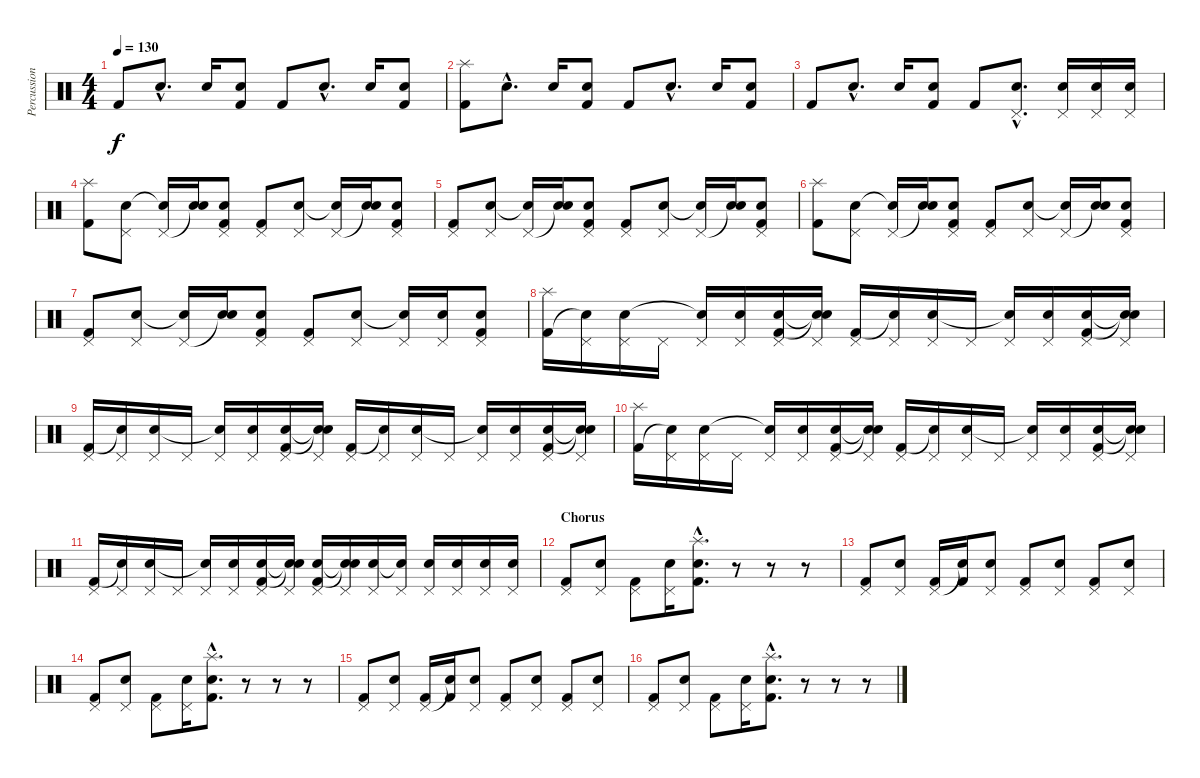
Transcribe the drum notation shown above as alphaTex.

\track ("Percussion" "Percussion") {instrument percussion}
\staff {score}
\articulation defaults
\ts (4 4)
\tempo 130
\clef neutral
\ks c "Kick (hit) 2".8{dy f} "Electric Snare (hit)"{hac}.8{d} "Electric Snare (hit)".16
("Electric Snare (hit)" "Kick (hit) 2").8 "Kick (hit) 2".8 "Electric Snare (hit)"{hac}.8{d} "Electric Snare (hit)".16 ("Electric Snare (hit)" "Kick (hit) 2").8 |
("Splash (hit)" "Kick (hit) 2").8 "Electric Snare (hit)"{hac}.8{d} "Electric Snare (hit)".16 ("Electric Snare (hit)" "Kick (hit) 2").8 "Kick (hit) 2".8 "Electric Snare (hit)"{hac}.8{d} "Electric Snare (hit)".16 ("Electric Snare (hit)" "Kick (hit) 2").8 |
"Kick (hit) 2".8 "Electric Snare (hit)"{hac}.8{d} "Electric Snare (hit)".16 ("Electric Snare (hit)" "Kick (hit) 2").8 "Kick (hit) 2".8 ("Pedal Hi-Hat (hit)"{hac} "Electric Snare (hit)"{hac}).8{d} ("Pedal Hi-Hat (hit)" "Electric Snare (hit)").16 ("Pedal Hi-Hat (hit)" "Electric Snare (hit)").16 ("Pedal Hi-Hat (hit)" "Electric Snare (hit)").16 |
("Splash (hit)" "Kick (hit) 2").8 ("Pedal Hi-Hat (hit)" "Electric Snare (hit)").8 ("Pedal Hi-Hat (hit)" "Snare (hit)"{t}).16 ("Snare (hit)"{t} "Electric Snare (hit)").16 ("Pedal Hi-Hat (hit)" "Electric Snare (hit)" "Kick (hit) 2").8 ("Pedal Hi-Hat (hit)" "Kick (hit) 2").8 ("Pedal Hi-Hat (hit)" "Electric Snare (hit)").8 ("Pedal Hi-Hat (hit)" "Snare (hit)"{t}).16 ("Snare (hit)"{t} "Electric Snare (hit)").16 ("Pedal Hi-Hat (hit)" "Electric Snare (hit)" "Kick (hit) 2").8 |
("Pedal Hi-Hat (hit)" "Kick (hit) 2").8 ("Pedal Hi-Hat (hit)" "Electric Snare (hit)").8 ("Pedal Hi-Hat (hit)" "Snare (hit)"{t}).16 ("Snare (hit)"{t} "Electric Snare (hit)").16 ("Pedal Hi-Hat (hit)" "Electric Snare (hit)" "Kick (hit) 2").8 ("Pedal Hi-Hat (hit)" "Kick (hit) 2").8 ("Pedal Hi-Hat (hit)" "Electric Snare (hit)").8 ("Pedal Hi-Hat (hit)" "Snare (hit)"{t}).16 ("Snare (hit)"{t} "Electric Snare (hit)").16 ("Pedal Hi-Hat (hit)" "Electric Snare (hit)" "Kick (hit) 2").8 |
("Splash (hit)" "Kick (hit) 2").8 ("Pedal Hi-Hat (hit)" "Electric Snare (hit)").8 ("Pedal Hi-Hat (hit)" "Snare (hit)"{t}).16 ("Snare (hit)"{t} "Electric Snare (hit)").16 ("Pedal Hi-Hat (hit)" "Electric Snare (hit)" "Kick (hit) 2").8 ("Pedal Hi-Hat (hit)" "Kick (hit) 2").8 ("Pedal Hi-Hat (hit)" "Electric Snare (hit)").8 ("Pedal Hi-Hat (hit)" "Snare (hit)"{t}).16 ("Snare (hit)"{t} "Electric Snare (hit)").16 ("Pedal Hi-Hat (hit)" "Electric Snare (hit)" "Kick (hit) 2").8 |
("Pedal Hi-Hat (hit)" "Kick (hit) 2").8 ("Pedal Hi-Hat (hit)" "Electric Snare (hit)").8 ("Pedal Hi-Hat (hit)" "Snare (hit)"{t}).16 ("Snare (hit)"{t} "Electric Snare (hit)").16 ("Pedal Hi-Hat (hit)" "Electric Snare (hit)" "Kick (hit) 2").8 ("Pedal Hi-Hat (hit)" "Kick (hit) 2").8 ("Pedal Hi-Hat (hit)" "Electric Snare (hit)").8 ("Pedal Hi-Hat (hit)" "Snare (hit)"{t}).16 ("Pedal Hi-Hat (hit)" "Electric Snare (hit)").16 ("Pedal Hi-Hat (hit)" "Electric Snare (hit)" "Kick (hit) 2").8 |
("Splash (hit)" "Kick (hit) 2").16 ("Pedal Hi-Hat (hit)" "Snare (hit)"{t}).16 ("Pedal Hi-Hat (hit)" "Electric Snare (hit)").16 "Pedal Hi-Hat (hit)".16 ("Pedal Hi-Hat (hit)" "Snare (hit)"{t}).16 ("Pedal Hi-Hat (hit)" "Electric Snare (hit)").16 ("Pedal Hi-Hat (hit)" "Electric Snare (hit)" "Kick (hit) 2").16 ("Pedal Hi-Hat (hit)" "Snare (hit)"{t} "Snare (hit)"{t}).16 ("Pedal Hi-Hat (hit)" "Kick (hit) 2").16 ("Pedal Hi-Hat (hit)" "Snare (hit)"{t}).16 ("Pedal Hi-Hat (hit)" "Electric Snare (hit)").16 "Pedal Hi-Hat (hit)".16 ("Pedal Hi-Hat (hit)" "Snare (hit)"{t}).16 ("Pedal Hi-Hat (hit)" "Electric Snare (hit)").16 ("Pedal Hi-Hat (hit)" "Electric Snare (hit)" "Kick (hit) 2").16 ("Pedal Hi-Hat (hit)" "Snare (hit)"{t} "Snare (hit)"{t}).16 |
("Pedal Hi-Hat (hit)" "Kick (hit) 2").16 ("Pedal Hi-Hat (hit)" "Snare (hit)"{t}).16 ("Pedal Hi-Hat (hit)" "Electric Snare (hit)").16 "Pedal Hi-Hat (hit)".16 ("Pedal Hi-Hat (hit)" "Snare (hit)"{t}).16 ("Pedal Hi-Hat (hit)" "Electric Snare (hit)").16 ("Pedal Hi-Hat (hit)" "Electric Snare (hit)" "Kick (hit) 2").16 ("Pedal Hi-Hat (hit)" "Snare (hit)"{t} "Snare (hit)"{t}).16 ("Pedal Hi-Hat (hit)" "Kick (hit) 2").16 ("Pedal Hi-Hat (hit)" "Snare (hit)"{t}).16 ("Pedal Hi-Hat (hit)" "Electric Snare (hit)").16 "Pedal Hi-Hat (hit)".16 ("Pedal Hi-Hat (hit)" "Snare (hit)"{t}).16 ("Pedal Hi-Hat (hit)" "Electric Snare (hit)").16 ("Pedal Hi-Hat (hit)" "Electric Snare (hit)" "Kick (hit) 2").16 ("Pedal Hi-Hat (hit)" "Snare (hit)"{t} "Snare (hit)"{t}).16 |
("Splash (hit)" "Kick (hit) 2").16 ("Pedal Hi-Hat (hit)" "Snare (hit)"{t}).16 ("Pedal Hi-Hat (hit)" "Electric Snare (hit)").16 "Pedal Hi-Hat (hit)".16 ("Pedal Hi-Hat (hit)" "Snare (hit)"{t}).16 ("Pedal Hi-Hat (hit)" "Electric Snare (hit)").16 ("Pedal Hi-Hat (hit)" "Electric Snare (hit)" "Kick (hit) 2").16 ("Pedal Hi-Hat (hit)" "Snare (hit)"{t} "Snare (hit)"{t}).16 ("Pedal Hi-Hat (hit)" "Kick (hit) 2").16 ("Pedal Hi-Hat (hit)" "Snare (hit)"{t}).16 ("Pedal Hi-Hat (hit)" "Electric Snare (hit)").16 "Pedal Hi-Hat (hit)".16 ("Pedal Hi-Hat (hit)" "Snare (hit)"{t}).16 ("Pedal Hi-Hat (hit)" "Electric Snare (hit)").16 ("Pedal Hi-Hat (hit)" "Electric Snare (hit)" "Kick (hit) 2").16 ("Pedal Hi-Hat (hit)" "Snare (hit)"{t} "Snare (hit)"{t}).16 |
("Pedal Hi-Hat (hit)" "Kick (hit) 2").16 ("Pedal Hi-Hat (hit)" "Snare (hit)"{t}).16 ("Pedal Hi-Hat (hit)" "Electric Snare (hit)").16 "Pedal Hi-Hat (hit)".16 ("Pedal Hi-Hat (hit)" "Snare (hit)"{t}).16 ("Pedal Hi-Hat (hit)" "Electric Snare (hit)").16 ("Pedal Hi-Hat (hit)" "Electric Snare (hit)" "Kick (hit) 2").16 ("Pedal Hi-Hat (hit)" "Snare (hit)"{t} "Snare (hit)"{t}).16 ("Pedal Hi-Hat (hit)" "Electric Snare (hit)" "Kick (hit) 2").16 ("Pedal Hi-Hat (hit)" "Snare (hit)"{t} "Snare (hit)"{t}).16 ("Pedal Hi-Hat (hit)" "Electric Snare (hit)").16 ("Pedal Hi-Hat (hit)" "Snare (hit)"{t}).16 ("Pedal Hi-Hat (hit)" "Electric Snare (hit)").16 ("Pedal Hi-Hat (hit)" "Electric Snare (hit)").16 ("Pedal Hi-Hat (hit)" "Electric Snare (hit)").16 ("Pedal Hi-Hat (hit)" "Electric Snare (hit)").16 |
\section ("" "Chorus")
("Pedal Hi-Hat (hit)" "Kick (hit) 2").8 ("Pedal Hi-Hat (hit)" "Electric Snare (hit)").8 ("Pedal Hi-Hat (hit)" "Kick (hit) 2").8 ("Pedal Hi-Hat (hit)" "Electric Snare (hit)").16 ("Splash (hit)"{hac} "Electric Snare (hit)"{hac} "Kick (hit) 2"{hac}).8{d} r.8 r.8 r.8 |
("Pedal Hi-Hat (hit)" "Kick (hit) 2").8 ("Pedal Hi-Hat (hit)" "Electric Snare (hit)").8 ("Pedal Hi-Hat (hit)" "Kick (hit) 2").16 ("Snare (hit)"{t} "Kick (hit) 2").16 ("Pedal Hi-Hat (hit)" "Electric Snare (hit)").8 ("Pedal Hi-Hat (hit)" "Kick (hit) 2").8 ("Pedal Hi-Hat (hit)" "Electric Snare (hit)").8 ("Pedal Hi-Hat (hit)" "Kick (hit) 2").8 ("Pedal Hi-Hat (hit)" "Electric Snare (hit)").8 |
("Pedal Hi-Hat (hit)" "Kick (hit) 2").8 ("Pedal Hi-Hat (hit)" "Electric Snare (hit)").8 ("Pedal Hi-Hat (hit)" "Kick (hit) 2").8 ("Pedal Hi-Hat (hit)" "Electric Snare (hit)").16 ("Splash (hit)"{hac} "Electric Snare (hit)"{hac} "Kick (hit) 2"{hac}).8{d} r.8 r.8 r.8 |
("Pedal Hi-Hat (hit)" "Kick (hit) 2").8 ("Pedal Hi-Hat (hit)" "Electric Snare (hit)").8 ("Pedal Hi-Hat (hit)" "Kick (hit) 2").16 ("Snare (hit)"{t} "Kick (hit) 2").16 ("Pedal Hi-Hat (hit)" "Electric Snare (hit)").8 ("Pedal Hi-Hat (hit)" "Kick (hit) 2").8 ("Pedal Hi-Hat (hit)" "Electric Snare (hit)").8 ("Pedal Hi-Hat (hit)" "Kick (hit) 2").8 ("Pedal Hi-Hat (hit)" "Electric Snare (hit)").8 |
("Pedal Hi-Hat (hit)" "Kick (hit) 2").8 ("Pedal Hi-Hat (hit)" "Electric Snare (hit)").8 ("Pedal Hi-Hat (hit)" "Kick (hit) 2").8 ("Pedal Hi-Hat (hit)" "Electric Snare (hit)").16 ("Splash (hit)"{hac} "Electric Snare (hit)"{hac} "Kick (hit) 2"{hac}).8{d} r.8 r.8 r.8
